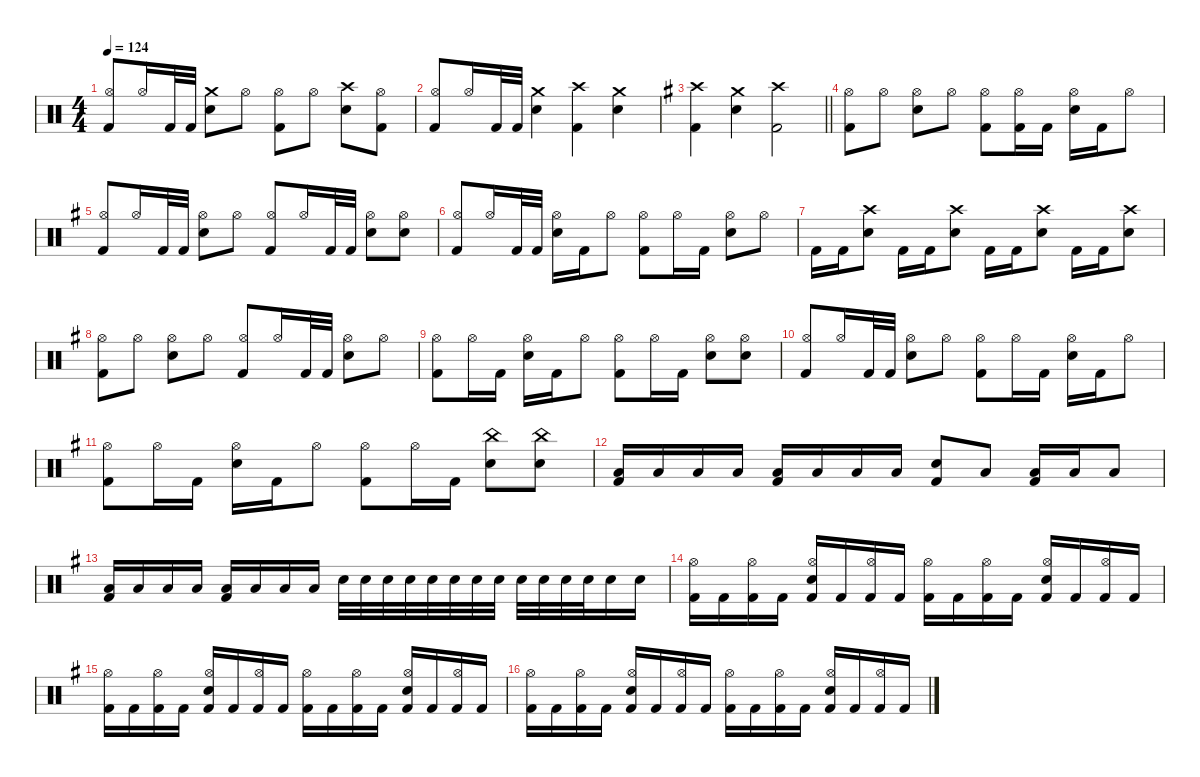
\defaultSystemsLayout 4
\hideDynamics
\bracketExtendMode nobrackets
\singleTrackTrackNamePolicy hidden
\multiTrackTrackNamePolicy hidden
\otherSystemsTrackNameOrientation horizontal
\track ("Drums" "drm.") {defaultSystemsLayout 4 instrument percussion}
\staff {score}
\articulation defaults
\ts (4 4)
\tempo 124
\clef neutral
\ks c
("Hi-Hat (open)" "Kick (hit) 2").8{dy mf beam Up} "Hi-Hat (open)".16{beam Up} "Kick (hit) 2".32{dy ff beam Up} "Kick (hit) 2".32{beam Up} ("Crash medium (hit)" "Snare (hit) 2").8{dy mf beam Down} "Hi-Hat (open)".8{beam Down} ("Hi-Hat (open)" "Kick (hit) 2").8{beam Down} "Hi-Hat (open)".8{beam Down} ("Crash high (hit)" "Snare (hit) 2").8{beam Down} ("Hi-Hat (open)" "Kick (hit) 2").8{beam Down} |
("Hi-Hat (open)" "Kick (hit) 2").8{beam Up} "Hi-Hat (open)".16{beam Up} "Kick (hit) 2".32{dy ff beam Up} "Kick (hit) 2".32{beam Up} ("Crash medium (hit)" "Snare (hit) 2").4{dy mf beam Down} ("Crash high (hit)" "Kick (hit) 2").4{beam Down} ("Crash medium (hit)" "Snare (hit) 2").4{beam Down} |
\barLineRight lightlight
\ks g
("Crash high (hit)"{acc forcenatural} "Kick (hit) 2"{acc forcenatural}).4{beam Down} ("Crash medium (hit)"{acc forcenatural} "Snare (hit) 2"{acc forcenatural}).4{beam Down} ("Crash high (hit)"{acc forcenatural} "Kick (hit) 2"{acc forcenatural}).2{beam Down} |
("Hi-Hat (open)"{acc forcenatural} "Kick (hit) 2"{acc forcenatural}).8{beam Down} "Hi-Hat (open)"{acc forcenatural}.8{beam Down} ("Hi-Hat (open)"{acc forcenatural} "Snare (hit) 2"{acc forcenatural}).8{beam Down} "Hi-Hat (open)"{acc forcenatural}.8{beam Down} ("Hi-Hat (open)"{acc forcenatural} "Kick (hit) 2"{acc forcenatural}).8{beam Down} ("Hi-Hat (open)"{acc forcenatural} "Kick (hit) 2"{acc forcenatural}).16{beam Down} "Kick (hit) 2"{acc forcenatural}.16{dy ff beam Down} ("Hi-Hat (open)"{acc forcenatural} "Snare (hit) 2"{acc forcenatural}).16{dy mf beam Down} "Kick (hit) 2"{acc forcenatural}.16{dy ff beam Down} "Hi-Hat (open)"{acc forcenatural}.8{dy mf beam Down} |
("Hi-Hat (open)"{acc forcenatural} "Kick (hit) 2"{acc forcenatural}).8{beam Up} "Hi-Hat (open)"{acc forcenatural}.16{beam Up} "Kick (hit) 2"{acc forcenatural}.32{dy ff beam Up} "Kick (hit) 2"{acc forcenatural}.32{beam Up} ("Hi-Hat (open)"{acc forcenatural} "Snare (hit) 2"{acc forcenatural}).8{dy mf beam Down} "Hi-Hat (open)"{acc forcenatural}.8{beam Down} ("Hi-Hat (open)"{acc forcenatural} "Kick (hit) 2"{acc forcenatural}).8{beam Up} "Hi-Hat (open)"{acc forcenatural}.16{beam Up} "Kick (hit) 2"{acc forcenatural}.32{dy ff beam Up} "Kick (hit) 2"{acc forcenatural}.32{beam Up} ("Hi-Hat (open)"{acc forcenatural} "Snare (hit) 2"{acc forcenatural}).8{dy mf beam Down} ("Hi-Hat (open)"{acc forcenatural} "Snare (hit) 2"{acc forcenatural}).8{beam Down} |
("Hi-Hat (open)"{acc forcenatural} "Kick (hit) 2"{acc forcenatural}).8{beam Up} "Hi-Hat (open)"{acc forcenatural}.16{beam Up} "Kick (hit) 2"{acc forcenatural}.32{dy ff beam Up} "Kick (hit) 2"{acc forcenatural}.32{beam Up} ("Hi-Hat (open)"{acc forcenatural} "Snare (hit) 2"{acc forcenatural}).16{dy mf beam Down} "Kick (hit) 2"{acc forcenatural}.16{dy ff beam Down} "Hi-Hat (open)"{acc forcenatural}.8{dy mf beam Down} ("Hi-Hat (open)"{acc forcenatural} "Kick (hit) 2"{acc forcenatural}).8{beam Down} "Hi-Hat (open)"{acc forcenatural}.16{beam Down} "Kick (hit) 2"{acc forcenatural}.16{dy ff beam Down} ("Hi-Hat (open)"{acc forcenatural} "Snare (hit) 2"{acc forcenatural}).8{dy mf beam Down} "Hi-Hat (open)"{acc forcenatural}.8{beam Down} |
"Kick (hit) 2"{acc forcenatural}.16{dy ff beam Down} "Kick (hit) 2"{acc forcenatural}.16{beam Down} ("Crash high (hit)"{acc forcenatural} "Snare (hit) 2"{acc forcenatural}).8{dy mf beam Down} "Kick (hit) 2"{acc forcenatural}.16{dy ff beam Down} "Kick (hit) 2"{acc forcenatural}.16{beam Down} ("Crash high (hit)"{acc forcenatural} "Snare (hit) 2"{acc forcenatural}).8{dy mf beam Down} "Kick (hit) 2"{acc forcenatural}.16{dy ff beam Down} "Kick (hit) 2"{acc forcenatural}.16{beam Down} ("Crash high (hit)"{acc forcenatural} "Snare (hit) 2"{acc forcenatural}).8{dy mf beam Down} "Kick (hit) 2"{acc forcenatural}.16{dy ff beam Down} "Kick (hit) 2"{acc forcenatural}.16{beam Down} ("Crash high (hit)"{acc forcenatural} "Snare (hit) 2"{acc forcenatural}).8{dy mf beam Down} |
("Hi-Hat (open)"{acc forcenatural} "Kick (hit) 2"{acc forcenatural}).8{beam Down} "Hi-Hat (open)"{acc forcenatural}.8{beam Down} ("Hi-Hat (open)"{acc forcenatural} "Snare (hit) 2"{acc forcenatural}).8{beam Down} "Hi-Hat (open)"{acc forcenatural}.8{beam Down} ("Hi-Hat (open)"{acc forcenatural} "Kick (hit) 2"{acc forcenatural}).8{beam Up} "Hi-Hat (open)"{acc forcenatural}.16{beam Up} "Kick (hit) 2"{acc forcenatural}.32{dy ff beam Up} "Kick (hit) 2"{acc forcenatural}.32{beam Up} ("Hi-Hat (open)"{acc forcenatural} "Snare (hit) 2"{acc forcenatural}).8{dy mf beam Down} "Hi-Hat (open)"{acc forcenatural}.8{beam Down} |
("Hi-Hat (open)"{acc forcenatural} "Kick (hit) 2"{acc forcenatural}).8{beam Down} "Hi-Hat (open)"{acc forcenatural}.16{beam Down} "Kick (hit) 2"{acc forcenatural}.16{dy ff beam Down} ("Hi-Hat (open)"{acc forcenatural} "Snare (hit) 2"{acc forcenatural}).16{dy mf beam Down} "Kick (hit) 2"{acc forcenatural}.16{dy ff beam Down} "Hi-Hat (open)"{acc forcenatural}.8{dy mf beam Down} ("Hi-Hat (open)"{acc forcenatural} "Kick (hit) 2"{acc forcenatural}).8{beam Down} "Hi-Hat (open)"{acc forcenatural}.16{beam Down} "Kick (hit) 2"{acc forcenatural}.16{dy ff beam Down} ("Hi-Hat (open)"{acc forcenatural} "Snare (hit) 2"{acc forcenatural}).8{dy mf beam Down} ("Hi-Hat (open)"{acc forcenatural} "Snare (hit) 2"{acc forcenatural}).8{beam Down} |
("Hi-Hat (open)"{acc forcenatural} "Kick (hit) 2"{acc forcenatural}).8{beam Up} "Hi-Hat (open)"{acc forcenatural}.16{beam Up} "Kick (hit) 2"{acc forcenatural}.32{dy ff beam Up} "Kick (hit) 2"{acc forcenatural}.32{beam Up} ("Hi-Hat (open)"{acc forcenatural} "Snare (hit) 2"{acc forcenatural}).8{dy mf beam Down} "Hi-Hat (open)"{acc forcenatural}.8{beam Down} ("Hi-Hat (open)"{acc forcenatural} "Kick (hit) 2"{acc forcenatural}).8{beam Down} "Hi-Hat (open)"{acc forcenatural}.16{beam Down} "Kick (hit) 2"{acc forcenatural}.16{dy ff beam Down} ("Hi-Hat (open)"{acc forcenatural} "Snare (hit) 2"{acc forcenatural}).16{dy mf beam Down} "Kick (hit) 2"{acc forcenatural}.16{dy ff beam Down} "Hi-Hat (open)"{acc forcenatural}.8{dy mf beam Down} |
("Hi-Hat (open)"{acc forcenatural} "Kick (hit) 2"{acc forcenatural}).8{beam Down} "Hi-Hat (open)"{acc forcenatural}.16{beam Down} "Kick (hit) 2"{acc forcenatural}.16{dy ff beam Down} ("Hi-Hat (open)"{acc forcenatural} "Snare (hit) 2"{acc forcenatural}).16{dy mf beam Down} "Kick (hit) 2"{acc forcenatural}.16{dy ff beam Down} "Hi-Hat (open)"{acc forcenatural}.8{dy mf beam Down} ("Hi-Hat (open)"{acc forcenatural} "Kick (hit) 2"{acc forcenatural}).8{beam Down} "Hi-Hat (open)"{acc forcenatural}.16{beam Down} "Kick (hit) 2"{acc forcenatural}.16{dy ff beam Down} ("China (hit)"{acc forcenatural} "Snare (hit) 2"{acc forcenatural}).8{dy mf beam Down} ("China (hit)"{acc forcenatural} "Snare (hit) 2"{acc forcenatural}).8{beam Down} |
("Low Floor Tom (hit)"{acc forcenatural} "Kick (hit) 2"{acc forcenatural}).16{beam Up} "Low Floor Tom (hit)"{acc forcenatural}.16{dy mp beam Up} "Low Floor Tom (hit)"{acc forcenatural}.16{dy mf beam Up} "Low Floor Tom (hit)"{acc forcenatural}.16{dy mp beam Up} ("Low Floor Tom (hit)"{acc forcenatural} "Kick (hit) 2"{acc forcenatural}).16{dy mf beam Up} "Low Floor Tom (hit)"{acc forcenatural}.16{dy mp beam Up} "Low Floor Tom (hit)"{acc forcenatural}.16{dy mf beam Up} "Low Floor Tom (hit)"{acc forcenatural}.16{dy p beam Up} ("Snare (hit) 2"{acc forcenatural} "Kick (hit) 2"{acc forcenatural}).8{dy ff beam Up} "Low Floor Tom (hit)"{acc forcenatural}.8{dy mf beam Up} ("Low Floor Tom (hit)"{acc forcenatural} "Kick (hit) 2"{acc forcenatural}).16{beam Up} "Low Floor Tom (hit)"{acc forcenatural}.16{dy mp beam Up} "Low Floor Tom (hit)"{acc forcenatural}.8{dy mf beam Up} |
("Low Floor Tom (hit)"{acc forcenatural} "Kick (hit) 2"{acc forcenatural}).16{beam Up} "Low Floor Tom (hit)"{acc forcenatural}.16{dy mp beam Up} "Low Floor Tom (hit)"{acc forcenatural}.16{dy mf beam Up} "Low Floor Tom (hit)"{acc forcenatural}.16{dy mp beam Up} ("Low Floor Tom (hit)"{acc forcenatural} "Kick (hit) 2"{acc forcenatural}).16{dy mf beam Up} "Low Floor Tom (hit)"{acc forcenatural}.16{dy mp beam Up} "Low Floor Tom (hit)"{acc forcenatural}.16{dy mf beam Up} "Low Floor Tom (hit)"{acc forcenatural}.16{dy p beam Up} "Snare (hit) 2"{acc forcenatural}.32{dy ff beam Down} "Snare (hit) 2"{acc forcenatural}.32{dy mp beam Down} "Snare (hit) 2"{acc forcenatural}.32{dy mf beam Down} "Snare (hit) 2"{acc forcenatural}.32{dy pp beam Down} "Snare (hit) 2"{acc forcenatural}.32{dy ff beam Down} "Snare (hit) 2"{acc forcenatural}.32{dy mp beam Down} "Snare (hit) 2"{acc forcenatural}.32{dy mf beam Down} "Snare (hit) 2"{acc forcenatural}.32{dy pp beam Down} "Snare (hit) 2"{acc forcenatural}.32{dy ff beam Down} "Snare (hit) 2"{acc forcenatural}.32{dy mp beam Down} "Snare (hit) 2"{acc forcenatural}.32{dy mf beam Down} "Snare (hit) 2"{acc forcenatural}.32{dy pp beam Down} "Snare (hit) 2"{acc forcenatural}.16{dy ff beam Down} "Snare (hit) 2"{acc forcenatural}.16{beam Down} |
("Hi-Hat (open)"{acc forcenatural} "Kick (hit) 2"{acc forcenatural}).16{dy mf beam Down} "Kick (hit) 2"{acc forcenatural}.16{dy ff beam Down} ("Hi-Hat (open)"{acc forcenatural} "Kick (hit) 2"{acc forcenatural}).16{dy mf beam Down} "Kick (hit) 2"{acc forcenatural}.16{dy ff beam Down} ("Hi-Hat (open)"{acc forcenatural} "Snare (hit) 2"{acc forcenatural} "Kick (hit) 2"{acc forcenatural}).16{dy mf beam Up} "Kick (hit) 2"{acc forcenatural}.16{dy ff beam Up} ("Hi-Hat (open)"{acc forcenatural} "Kick (hit) 2"{acc forcenatural}).16{dy mf beam Up} "Kick (hit) 2"{acc forcenatural}.16{dy ff beam Up} ("Hi-Hat (open)"{acc forcenatural} "Kick (hit) 2"{acc forcenatural}).16{dy mf beam Down} "Kick (hit) 2"{acc forcenatural}.16{dy ff beam Down} ("Hi-Hat (open)"{acc forcenatural} "Kick (hit) 2"{acc forcenatural}).16{dy mf beam Down} "Kick (hit) 2"{acc forcenatural}.16{dy ff beam Down} ("Hi-Hat (open)"{acc forcenatural} "Snare (hit) 2"{acc forcenatural} "Kick (hit) 2"{acc forcenatural}).16{dy mf beam Up} "Kick (hit) 2"{acc forcenatural}.16{dy ff beam Up} ("Hi-Hat (open)"{acc forcenatural} "Kick (hit) 2"{acc forcenatural}).16{dy mf beam Up} "Kick (hit) 2"{acc forcenatural}.16{dy ff beam Up} |
("Hi-Hat (open)"{acc forcenatural} "Kick (hit) 2"{acc forcenatural}).16{dy mf beam Down} "Kick (hit) 2"{acc forcenatural}.16{dy ff beam Down} ("Hi-Hat (open)"{acc forcenatural} "Kick (hit) 2"{acc forcenatural}).16{dy mf beam Down} "Kick (hit) 2"{acc forcenatural}.16{dy ff beam Down} ("Hi-Hat (open)"{acc forcenatural} "Snare (hit) 2"{acc forcenatural} "Kick (hit) 2"{acc forcenatural}).16{dy mf beam Up} "Kick (hit) 2"{acc forcenatural}.16{dy ff beam Up} ("Hi-Hat (open)"{acc forcenatural} "Kick (hit) 2"{acc forcenatural}).16{dy mf beam Up} "Kick (hit) 2"{acc forcenatural}.16{dy ff beam Up} ("Hi-Hat (open)"{acc forcenatural} "Kick (hit) 2"{acc forcenatural}).16{dy mf beam Down} "Kick (hit) 2"{acc forcenatural}.16{dy ff beam Down} ("Hi-Hat (open)"{acc forcenatural} "Kick (hit) 2"{acc forcenatural}).16{dy mf beam Down} "Kick (hit) 2"{acc forcenatural}.16{dy ff beam Down} ("Hi-Hat (open)"{acc forcenatural} "Snare (hit) 2"{acc forcenatural} "Kick (hit) 2"{acc forcenatural}).16{dy mf beam Up} "Kick (hit) 2"{acc forcenatural}.16{dy ff beam Up} ("Hi-Hat (open)"{acc forcenatural} "Kick (hit) 2"{acc forcenatural}).16{dy mp beam Up} "Kick (hit) 2"{acc forcenatural}.16{dy ff beam Up} |
("Hi-Hat (open)"{acc forcenatural} "Kick (hit) 2"{acc forcenatural}).16{dy mf beam Down} "Kick (hit) 2"{acc forcenatural}.16{dy ff beam Down} ("Hi-Hat (open)"{acc forcenatural} "Kick (hit) 2"{acc forcenatural}).16{dy mf beam Down} "Kick (hit) 2"{acc forcenatural}.16{dy ff beam Down} ("Hi-Hat (open)"{acc forcenatural} "Snare (hit) 2"{acc forcenatural} "Kick (hit) 2"{acc forcenatural}).16{dy mf beam Up} "Kick (hit) 2"{acc forcenatural}.16{dy ff beam Up} ("Hi-Hat (open)"{acc forcenatural} "Kick (hit) 2"{acc forcenatural}).16{dy mp beam Up} "Kick (hit) 2"{acc forcenatural}.16{dy ff beam Up} ("Hi-Hat (open)"{acc forcenatural} "Kick (hit) 2"{acc forcenatural}).16{dy mf beam Down} "Kick (hit) 2"{acc forcenatural}.16{dy ff beam Down} ("Hi-Hat (open)"{acc forcenatural} "Kick (hit) 2"{acc forcenatural}).16{dy mf beam Down} "Kick (hit) 2"{acc forcenatural}.16{dy ff beam Down} ("Hi-Hat (open)"{acc forcenatural} "Snare (hit) 2"{acc forcenatural} "Kick (hit) 2"{acc forcenatural}).16{dy mf beam Up} "Kick (hit) 2"{acc forcenatural}.16{dy ff beam Up} ("Hi-Hat (open)"{acc forcenatural} "Kick (hit) 2"{acc forcenatural}).16{dy mf beam Up} "Kick (hit) 2"{acc forcenatural}.16{dy ff beam Up}
